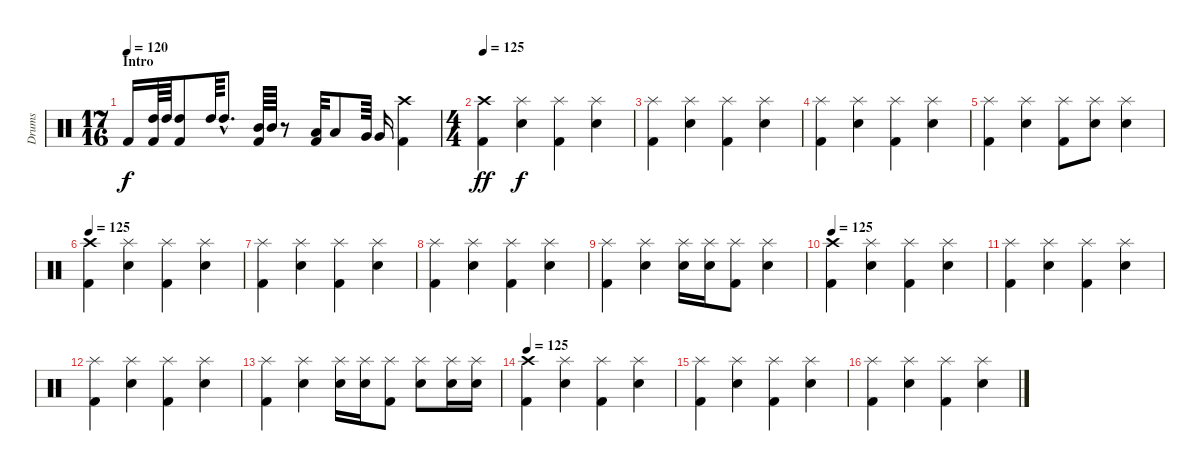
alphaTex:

\track ("Drums" "Drums") {instrument percussion}
\staff {score}
\articulation defaults
\ts (17 16)
\section ("" "Intro")
\tempo 120
\clef neutral
\ks c "Kick (hit) 2".16{dy f}
("High Tom (hit)" "Kick (hit) 2").64 "High Tom (hit)".64 ("High Tom (hit)" "Kick (hit) 2").8 "High Tom (hit)".64 "High Tom (hit)"{hac}.8{d} ("Mid Tom (hit)" "Kick (hit) 2").64 "Mid Tom (hit)".64 r.8 ("Low Tom (hit)" "Kick (hit) 2").32 "Low Tom (hit)".8 "Very Low Tom (hit)".64 "Very Low Tom (hit)".16 ("Crash high (hit)" "Kick (hit) 2").4 |
\ts (4 4)
\tempo 125
("Crash high (hit)" "Kick (hit) 2").4{dy ff} ("Splash (hit)" "Snare (hit) 2").4{dy f} ("Splash (hit)" "Kick (hit) 2").4 ("Splash (hit)" "Snare (hit) 2").4 |
("Splash (hit)" "Kick (hit) 2").4 ("Splash (hit)" "Snare (hit) 2").4 ("Splash (hit)" "Kick (hit) 2").4 ("Splash (hit)" "Snare (hit) 2").4 |
("Splash (hit)" "Kick (hit) 2").4 ("Splash (hit)" "Snare (hit) 2").4 ("Splash (hit)" "Kick (hit) 2").4 ("Splash (hit)" "Snare (hit) 2").4 |
("Splash (hit)" "Kick (hit) 2").4 ("Splash (hit)" "Snare (hit) 2").4 ("Splash (hit)" "Kick (hit) 2").8 ("Splash (hit)" "Snare (hit) 2").8 ("Splash (hit)" "Snare (hit) 2").4 |
\tempo 125
("Crash high (hit)" "Kick (hit) 2").4 ("Splash (hit)" "Snare (hit) 2").4 ("Splash (hit)" "Kick (hit) 2").4 ("Splash (hit)" "Snare (hit) 2").4 |
("Splash (hit)" "Kick (hit) 2").4 ("Splash (hit)" "Snare (hit) 2").4 ("Splash (hit)" "Kick (hit) 2").4 ("Splash (hit)" "Snare (hit) 2").4 |
("Splash (hit)" "Kick (hit) 2").4 ("Splash (hit)" "Snare (hit) 2").4 ("Splash (hit)" "Kick (hit) 2").4 ("Splash (hit)" "Snare (hit) 2").4 |
("Splash (hit)" "Kick (hit) 2").4 ("Splash (hit)" "Snare (hit) 2").4 ("Snare (hit) 2" "Splash (hit)").16 ("Snare (hit) 2" "Splash (hit)").16 ("Kick (hit) 2" "Splash (hit)").8 ("Snare (hit) 2" "Splash (hit)").4 |
\tempo 125
("Crash high (hit)" "Kick (hit) 2").4 ("Splash (hit)" "Snare (hit) 2").4 ("Splash (hit)" "Kick (hit) 2").4 ("Splash (hit)" "Snare (hit) 2").4 |
("Splash (hit)" "Kick (hit) 2").4 ("Splash (hit)" "Snare (hit) 2").4 ("Splash (hit)" "Kick (hit) 2").4 ("Splash (hit)" "Snare (hit) 2").4 |
("Splash (hit)" "Kick (hit) 2").4 ("Splash (hit)" "Snare (hit) 2").4 ("Splash (hit)" "Kick (hit) 2").4 ("Splash (hit)" "Snare (hit) 2").4 |
("Splash (hit)" "Kick (hit) 2").4 ("Splash (hit)" "Snare (hit) 2").4 ("Snare (hit) 2" "Splash (hit)").16 ("Snare (hit) 2" "Splash (hit)").16 ("Kick (hit) 2" "Splash (hit)").8 ("Snare (hit) 2" "Splash (hit)").8 ("Snare (hit) 2" "Splash (hit)").16 ("Snare (hit) 2" "Splash (hit)").16 |
\tempo 125
("Crash high (hit)" "Kick (hit) 2").4 ("Splash (hit)" "Snare (hit) 2").4 ("Splash (hit)" "Kick (hit) 2").4 ("Splash (hit)" "Snare (hit) 2").4 |
("Splash (hit)" "Kick (hit) 2").4 ("Splash (hit)" "Snare (hit) 2").4 ("Splash (hit)" "Kick (hit) 2").4 ("Splash (hit)" "Snare (hit) 2").4 |
("Splash (hit)" "Kick (hit) 2").4 ("Splash (hit)" "Snare (hit) 2").4 ("Splash (hit)" "Kick (hit) 2").4 ("Splash (hit)" "Snare (hit) 2").4
